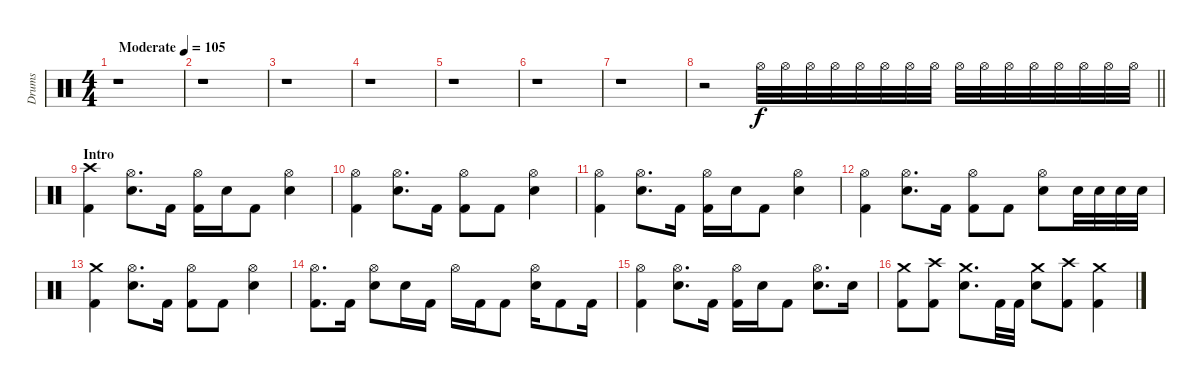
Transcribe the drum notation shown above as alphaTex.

\track ("Drums" "Drums") {instrument percussion}
\staff {score}
\articulation defaults
\ts (4 4)
\tempo (105 "Moderate")
\clef neutral
\ks c
r.1{dy f} |
r.1 |
r.1 |
r.1 |
r.1 |
r.1 |
r.1 |
\barLineRight lightlight
r.2{volume 0} "Hi-Hat (open)".32{volume 16} "Hi-Hat (open)".32 "Hi-Hat (open)".32 "Hi-Hat (open)".32 "Hi-Hat (open)".32 "Hi-Hat (open)".32 "Hi-Hat (open)".32 "Hi-Hat (open)".32 "Hi-Hat (open)".32 "Hi-Hat (open)".32 "Hi-Hat (open)".32 "Hi-Hat (open)".32 "Hi-Hat (open)".32 "Hi-Hat (open)".32 "Hi-Hat (open)".32 "Hi-Hat (open)".32 |
\section ("" "Intro")
("Crash high (hit)" "Kick (hit) 2").4 ("Hi-Hat (open)" "Snare (hit) 2").8{d} "Kick (hit) 2".16 ("Hi-Hat (open)" "Kick (hit) 2").16 "Snare (hit) 2".16 "Kick (hit) 2".8 ("Hi-Hat (open)" "Snare (hit) 2").4 |
("Hi-Hat (open)" "Kick (hit) 2").4 ("Hi-Hat (open)" "Snare (hit) 2").8{d} "Kick (hit) 2".16 ("Hi-Hat (open)" "Kick (hit) 2").8 "Kick (hit) 2".8 ("Hi-Hat (open)" "Snare (hit) 2").4 |
("Hi-Hat (open)" "Kick (hit) 2").4 ("Hi-Hat (open)" "Snare (hit) 2").8{d} "Kick (hit) 2".16 ("Hi-Hat (open)" "Kick (hit) 2").16 "Snare (hit) 2".16 "Kick (hit) 2".8 ("Hi-Hat (open)" "Snare (hit) 2").4 |
("Hi-Hat (open)" "Kick (hit) 2").4 ("Hi-Hat (open)" "Snare (hit) 2").8{d} "Kick (hit) 2".16 ("Hi-Hat (open)" "Kick (hit) 2").8 "Kick (hit) 2".8 ("Hi-Hat (open)" "Snare (hit) 2").8 "Snare (hit) 2".32 "Snare (hit) 2".32 "Snare (hit) 2".32 "Snare (hit) 2".32 |
("Crash medium (hit)" "Kick (hit) 2").4 ("Hi-Hat (open)" "Snare (hit) 2").8{d} "Kick (hit) 2".16 ("Hi-Hat (open)" "Kick (hit) 2").8 "Kick (hit) 2".8 ("Hi-Hat (open)" "Snare (hit) 2").4 |
("Hi-Hat (open)" "Kick (hit) 2").8{d} "Kick (hit) 2".16 ("Hi-Hat (open)" "Snare (hit) 2").8 "Snare (hit) 2".16 "Kick (hit) 2".16 "Hi-Hat (open)".16 "Kick (hit) 2".16 "Kick (hit) 2".8 ("Hi-Hat (open)" "Snare (hit) 2").16 "Kick (hit) 2".8 "Kick (hit) 2".16 |
("Hi-Hat (open)" "Kick (hit) 2").4 ("Hi-Hat (open)" "Snare (hit) 2").8{d} "Kick (hit) 2".16 ("Hi-Hat (open)" "Kick (hit) 2").16 "Snare (hit) 2".16 "Kick (hit) 2".8 ("Hi-Hat (open)" "Snare (hit) 2").8{d} "Snare (hit) 2".16 |
("Crash medium (hit)" "Kick (hit) 2").8 ("Crash high (hit)" "Kick (hit) 2").8 ("Crash medium (hit)" "Snare (hit) 2").8{d} "Kick (hit) 2".32 "Kick (hit) 2".32 ("Crash medium (hit)" "Snare (hit) 2").8 ("Crash high (hit)" "Kick (hit) 2").8 ("Crash medium (hit)" "Kick (hit) 2").4
